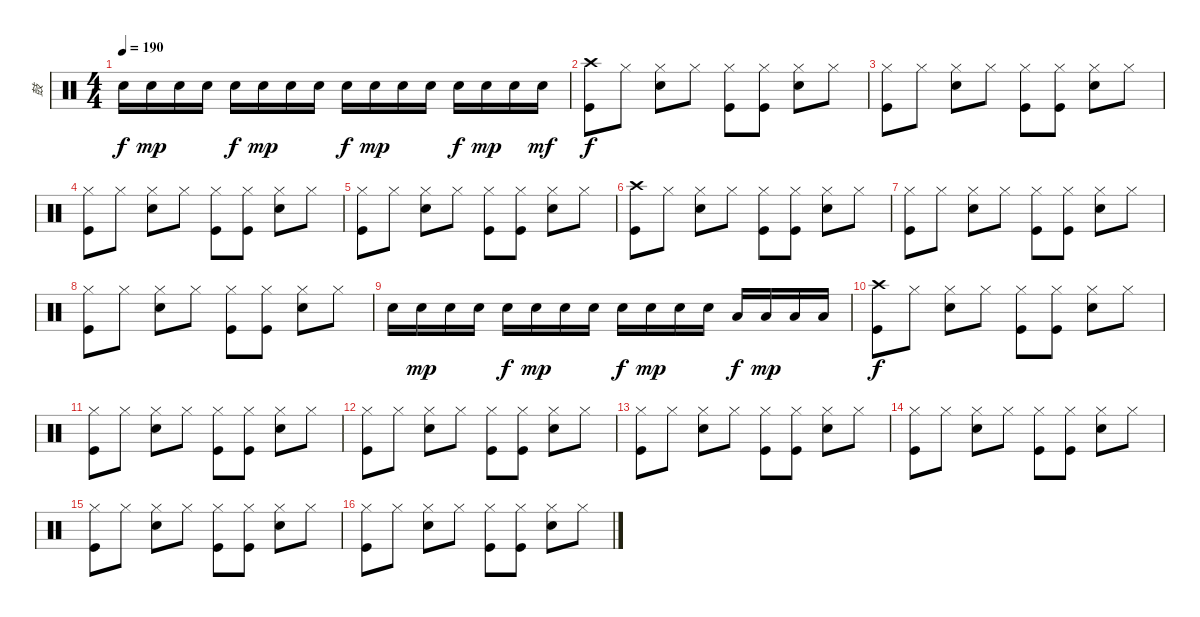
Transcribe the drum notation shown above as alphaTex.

\track ("鼓" "鼓") {instrument percussion}
\staff {score}
\articulation defaults
\ts (4 4)
\tempo 190
\clef neutral
\ks c "Snare (hit) 2".16{dy f} "Snare (hit) 2".16{dy mp} "Snare (hit) 2".16 "Snare (hit) 2".16 "Snare (hit) 2".16{dy f} "Snare (hit) 2".16{dy mp} "Snare (hit) 2".16 "Snare (hit) 2".16 "Snare (hit) 2".16{dy f} "Snare (hit) 2".16{dy mp} "Snare (hit) 2".16 "Snare (hit) 2".16 "Snare (hit) 2".16{dy f} "Snare (hit) 2".16{dy mp} "Snare (hit) 2".16 "Snare (hit) 2".16{dy mf}
|
("Crash high (hit)" "Kick (hit)").8{dy f} "Hi-Hat (closed)".8 ("Hi-Hat (closed)" "Snare (hit) 2").8 "Hi-Hat (closed)".8 ("Hi-Hat (closed)" "Kick (hit)").8 ("Hi-Hat (closed)" "Kick (hit)").8 ("Hi-Hat (closed)" "Snare (hit) 2").8 "Hi-Hat (closed)".8 |
("Hi-Hat (closed)" "Kick (hit)").8 "Hi-Hat (closed)".8 ("Hi-Hat (closed)" "Snare (hit) 2").8 "Hi-Hat (closed)".8 ("Hi-Hat (closed)" "Kick (hit)").8 ("Hi-Hat (closed)" "Kick (hit)").8 ("Hi-Hat (closed)" "Snare (hit) 2").8 "Hi-Hat (closed)".8 |
("Hi-Hat (closed)" "Kick (hit)").8 "Hi-Hat (closed)".8 ("Hi-Hat (closed)" "Snare (hit) 2").8 "Hi-Hat (closed)".8 ("Hi-Hat (closed)" "Kick (hit)").8 ("Hi-Hat (closed)" "Kick (hit)").8 ("Hi-Hat (closed)" "Snare (hit) 2").8 "Hi-Hat (closed)".8 |
("Hi-Hat (closed)" "Kick (hit)").8 "Hi-Hat (closed)".8 ("Hi-Hat (closed)" "Snare (hit) 2").8 "Hi-Hat (closed)".8 ("Hi-Hat (closed)" "Kick (hit)").8 ("Hi-Hat (closed)" "Kick (hit)").8 ("Hi-Hat (closed)" "Snare (hit) 2").8 "Hi-Hat (closed)".8 |
("Crash high (hit)" "Kick (hit)").8 "Hi-Hat (closed)".8 ("Hi-Hat (closed)" "Snare (hit) 2").8 "Hi-Hat (closed)".8 ("Hi-Hat (closed)" "Kick (hit)").8 ("Hi-Hat (closed)" "Kick (hit)").8 ("Hi-Hat (closed)" "Snare (hit) 2").8 "Hi-Hat (closed)".8 |
("Hi-Hat (closed)" "Kick (hit)").8 "Hi-Hat (closed)".8 ("Hi-Hat (closed)" "Snare (hit) 2").8 "Hi-Hat (closed)".8 ("Hi-Hat (closed)" "Kick (hit)").8 ("Hi-Hat (closed)" "Kick (hit)").8 ("Hi-Hat (closed)" "Snare (hit) 2").8 "Hi-Hat (closed)".8 |
("Hi-Hat (closed)" "Kick (hit)").8 "Hi-Hat (closed)".8 ("Hi-Hat (closed)" "Snare (hit) 2").8 "Hi-Hat (closed)".8 ("Hi-Hat (closed)" "Kick (hit)").8 ("Hi-Hat (closed)" "Kick (hit)").8 ("Hi-Hat (closed)" "Snare (hit) 2").8 "Hi-Hat (closed)".8 |
"Snare (hit) 2".16 "Snare (hit) 2".16{dy mp} "Snare (hit) 2".16 "Snare (hit) 2".16 "Snare (hit) 2".16{dy f} "Snare (hit) 2".16{dy mp} "Snare (hit) 2".16 "Snare (hit) 2".16 "Snare (hit) 2".16{dy f} "Snare (hit) 2".16{dy mp} "Snare (hit) 2".16 "Snare (hit) 2".16 "Low Tom (hit)".16{dy f} "Low Tom (hit)".16{dy mp} "Low Floor Tom (hit)".16 "Low Floor Tom (hit)".16 |
("Crash high (hit)" "Kick (hit)").8{dy f} "Hi-Hat (closed)".8 ("Hi-Hat (closed)" "Snare (hit) 2").8 "Hi-Hat (closed)".8 ("Hi-Hat (closed)" "Kick (hit)").8 ("Hi-Hat (closed)" "Kick (hit)").8 ("Hi-Hat (closed)" "Snare (hit) 2").8 "Hi-Hat (closed)".8 |
("Hi-Hat (closed)" "Kick (hit)").8 "Hi-Hat (closed)".8 ("Hi-Hat (closed)" "Snare (hit) 2").8 "Hi-Hat (closed)".8 ("Hi-Hat (closed)" "Kick (hit)").8 ("Hi-Hat (closed)" "Kick (hit)").8 ("Hi-Hat (closed)" "Snare (hit) 2").8 "Hi-Hat (closed)".8 |
("Hi-Hat (closed)" "Kick (hit)").8 "Hi-Hat (closed)".8 ("Hi-Hat (closed)" "Snare (hit) 2").8 "Hi-Hat (closed)".8 ("Hi-Hat (closed)" "Kick (hit)").8 ("Hi-Hat (closed)" "Kick (hit)").8 ("Hi-Hat (closed)" "Snare (hit) 2").8 "Hi-Hat (closed)".8 |
("Hi-Hat (closed)" "Kick (hit)").8 "Hi-Hat (closed)".8 ("Hi-Hat (closed)" "Snare (hit) 2").8 "Hi-Hat (closed)".8 ("Hi-Hat (closed)" "Kick (hit)").8 ("Hi-Hat (closed)" "Kick (hit)").8 ("Hi-Hat (closed)" "Snare (hit) 2").8 "Hi-Hat (closed)".8 |
("Hi-Hat (closed)" "Kick (hit)").8 "Hi-Hat (closed)".8 ("Hi-Hat (closed)" "Snare (hit) 2").8 "Hi-Hat (closed)".8 ("Hi-Hat (closed)" "Kick (hit)").8 ("Hi-Hat (closed)" "Kick (hit)").8 ("Hi-Hat (closed)" "Snare (hit) 2").8 "Hi-Hat (closed)".8 |
("Hi-Hat (closed)" "Kick (hit)").8 "Hi-Hat (closed)".8 ("Hi-Hat (closed)" "Snare (hit) 2").8 "Hi-Hat (closed)".8 ("Hi-Hat (closed)" "Kick (hit)").8 ("Hi-Hat (closed)" "Kick (hit)").8 ("Hi-Hat (closed)" "Snare (hit) 2").8 "Hi-Hat (closed)".8 |
("Hi-Hat (closed)" "Kick (hit)").8 "Hi-Hat (closed)".8 ("Hi-Hat (closed)" "Snare (hit) 2").8 "Hi-Hat (closed)".8 ("Hi-Hat (closed)" "Kick (hit)").8 ("Hi-Hat (closed)" "Kick (hit)").8 ("Hi-Hat (closed)" "Snare (hit) 2").8 "Hi-Hat (closed)".8
